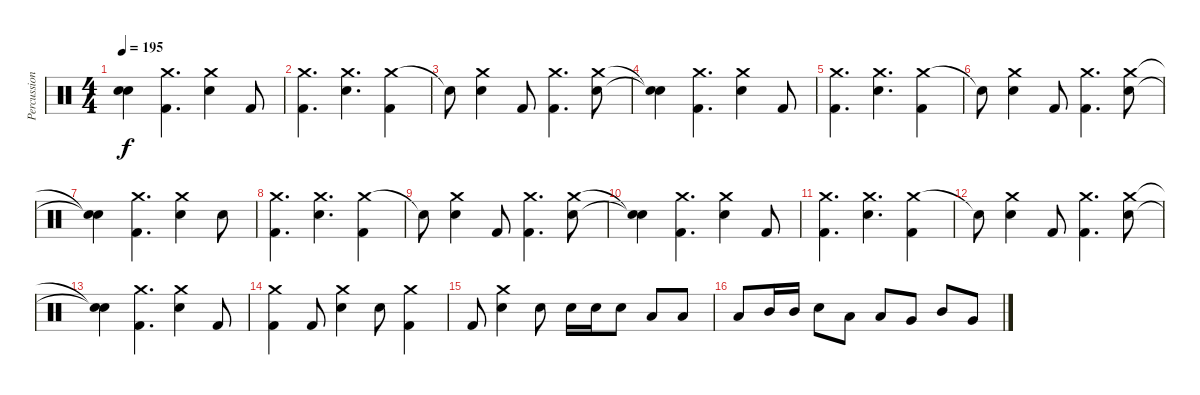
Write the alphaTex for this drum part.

\track ("Percussion" "Percussion") {instrument percussion}
\staff {score}
\articulation defaults
\ts (4 4)
\tempo 195
\clef neutral
\ks c
("Snare (hit)"{t} "Snare (hit)"{t}).4{dy f} ("Crash medium (hit)" "Kick (hit) 2").4{d} ("Crash medium (hit)" "Electric Snare (hit)").4 "Kick (hit) 2".8 |
("Crash medium (hit)" "Kick (hit) 2").4{d} ("Crash medium (hit)" "Electric Snare (hit)").4{d} ("Crash medium (hit)" "Kick (hit) 2").4 |
"Snare (hit)"{t}.8 ("Crash medium (hit)" "Electric Snare (hit)").4 "Kick (hit) 2".8 ("Crash medium (hit)" "Kick (hit) 2").4{d} ("Crash medium (hit)" "Electric Snare (hit)").8 |
("Snare (hit)"{t} "Snare (hit)"{t}).4 ("Crash medium (hit)" "Kick (hit) 2").4{d} ("Crash medium (hit)" "Electric Snare (hit)").4 "Kick (hit) 2".8 |
("Crash medium (hit)" "Kick (hit) 2").4{d} ("Crash medium (hit)" "Electric Snare (hit)").4{d} ("Crash medium (hit)" "Kick (hit) 2").4 |
"Snare (hit)"{t}.8 ("Crash medium (hit)" "Electric Snare (hit)").4 "Kick (hit) 2".8 ("Crash medium (hit)" "Kick (hit) 2").4{d} ("Crash medium (hit)" "Electric Snare (hit)").8 |
("Snare (hit)"{t} "Snare (hit)"{t}).4 ("Crash medium (hit)" "Kick (hit) 2").4{d} ("Crash medium (hit)" "Electric Snare (hit)").4 "Electric Snare (hit)".8 |
("Crash medium (hit)" "Kick (hit) 2").4{d} ("Crash medium (hit)" "Electric Snare (hit)").4{d} ("Crash medium (hit)" "Kick (hit) 2").4 |
"Snare (hit)"{t}.8 ("Crash medium (hit)" "Electric Snare (hit)").4 "Kick (hit) 2".8 ("Crash medium (hit)" "Kick (hit) 2").4{d} ("Crash medium (hit)" "Electric Snare (hit)").8 |
("Snare (hit)"{t} "Snare (hit)"{t}).4 ("Crash medium (hit)" "Kick (hit) 2").4{d} ("Crash medium (hit)" "Electric Snare (hit)").4 "Kick (hit) 2".8 |
("Crash medium (hit)" "Kick (hit) 2").4{d} ("Crash medium (hit)" "Electric Snare (hit)").4{d} ("Crash medium (hit)" "Kick (hit) 2").4 |
"Snare (hit)"{t}.8 ("Crash medium (hit)" "Electric Snare (hit)").4 "Kick (hit) 2".8 ("Crash medium (hit)" "Kick (hit) 2").4{d} ("Crash medium (hit)" "Electric Snare (hit)").8 |
("Snare (hit)"{t} "Snare (hit)"{t}).4 ("Crash medium (hit)" "Kick (hit) 2").4{d} ("Crash medium (hit)" "Electric Snare (hit)").4 "Kick (hit) 2".8 |
("Crash medium (hit)" "Kick (hit) 2").4 "Kick (hit) 2".8 ("Crash medium (hit)" "Electric Snare (hit)").4 "Electric Snare (hit)".8 ("Crash medium (hit)" "Kick (hit) 2").4 |
"Kick (hit) 2".8 ("Crash medium (hit)" "Electric Snare (hit)").4 "Electric Snare (hit)".8 "Electric Snare (hit)".16 "Electric Snare (hit)".16 "Electric Snare (hit)".8 "Low Tom (hit)".8 "Low Tom (hit)".8 |
"Low Tom (hit)".8 "Mid Tom (hit)".16 "Mid Tom (hit)".16 "Electric Snare (hit)".8 "Low Tom (hit)".8 "Low Tom (hit)".8 "Very Low Tom (hit)".8 "Mid Tom (hit)".8 "Very Low Tom (hit)".8
